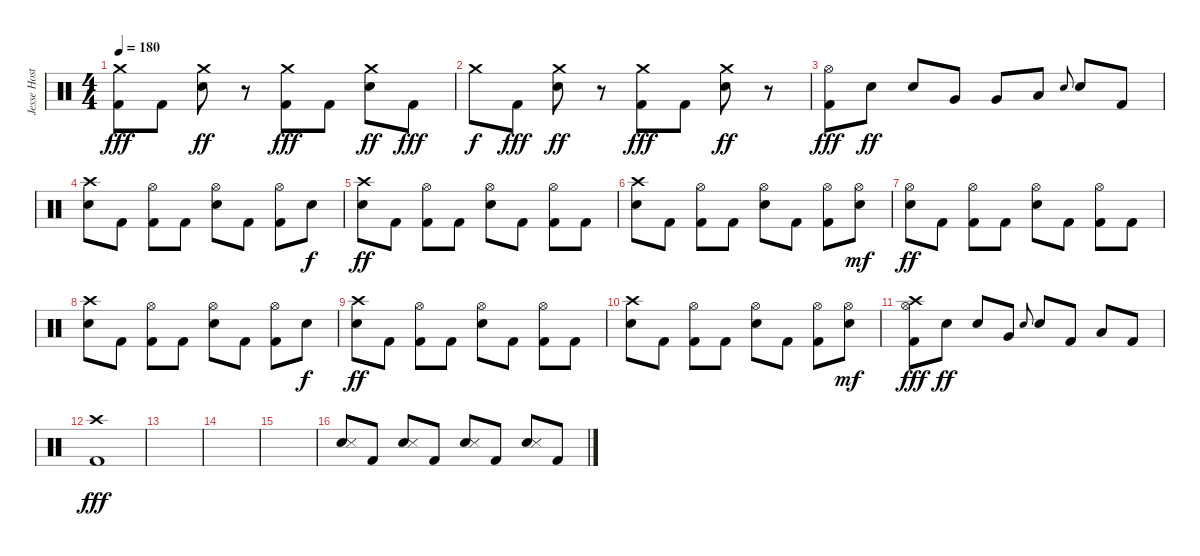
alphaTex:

\track ("Jesse Hostetler" "Jesse Host") {instrument percussion}
\staff {score}
\articulation defaults
\ts (4 4)
\tempo 180
\clef neutral
\ks c
("Crash medium (hit)" "Kick (hit) 2").8{dy fff} "Kick (hit) 2".8 ("Crash medium (hit)" "Electric Snare (hit)").8{dy ff} r.8 ("Crash medium (hit)" "Kick (hit) 2").8{dy fff} "Kick (hit) 2".8 ("Crash medium (hit)" "Electric Snare (hit)").8{dy ff} "Kick (hit) 2".8{dy fff} |
"Crash medium (hit)".8{dy f} "Kick (hit) 2".8{dy fff} ("Crash medium (hit)" "Electric Snare (hit)").8{dy ff} r.8 ("Crash medium (hit)" "Kick (hit) 2").8{dy fff} "Kick (hit) 2".8 ("Crash medium (hit)" "Electric Snare (hit)").8{dy ff} r.8 |
("Hi-Hat (open)" "Kick (hit) 2").8{dy fff} "Electric Snare (hit)".8{dy ff} "Electric Snare (hit)".8 "Very Low Tom (hit)".8 "Very Low Tom (hit)".8 "Low Floor Tom (hit)".8 "Electric Snare (hit)".8{gr onbeat} "Electric Snare (hit)".8 "Kick (hit) 2".8 |
("Crash high (hit)" "Electric Snare (hit)").8 "Kick (hit) 2".8 ("Hi-Hat (open)" "Kick (hit) 2").8 "Kick (hit) 2".8 ("Hi-Hat (open)" "Electric Snare (hit)").8 "Kick (hit) 2".8 ("Hi-Hat (open)" "Kick (hit) 2").8 "Electric Snare (hit)".8{dy f} |
("Crash high (hit)" "Electric Snare (hit)").8{dy ff} "Kick (hit) 2".8 ("Hi-Hat (open)" "Kick (hit) 2").8 "Kick (hit) 2".8 ("Hi-Hat (open)" "Electric Snare (hit)").8 "Kick (hit) 2".8 ("Hi-Hat (open)" "Kick (hit) 2").8 "Kick (hit) 2".8 |
("Crash high (hit)" "Electric Snare (hit)").8 "Kick (hit) 2".8 ("Hi-Hat (open)" "Kick (hit) 2").8 "Kick (hit) 2".8 ("Hi-Hat (open)" "Electric Snare (hit)").8 "Kick (hit) 2".8 ("Hi-Hat (open)" "Kick (hit) 2").8 ("Hi-Hat (open)" "Electric Snare (hit)").8{dy mf} |
("Hi-Hat (open)" "Electric Snare (hit)").8{dy ff} "Kick (hit) 2".8 ("Hi-Hat (open)" "Kick (hit) 2").8 "Kick (hit) 2".8 ("Hi-Hat (open)" "Electric Snare (hit)").8 "Kick (hit) 2".8 ("Hi-Hat (open)" "Kick (hit) 2").8 "Kick (hit) 2".8 |
("Crash high (hit)" "Electric Snare (hit)").8 "Kick (hit) 2".8 ("Hi-Hat (open)" "Kick (hit) 2").8 "Kick (hit) 2".8 ("Hi-Hat (open)" "Electric Snare (hit)").8 "Kick (hit) 2".8 ("Hi-Hat (open)" "Kick (hit) 2").8 "Electric Snare (hit)".8{dy f} |
("Crash high (hit)" "Electric Snare (hit)").8{dy ff} "Kick (hit) 2".8 ("Hi-Hat (open)" "Kick (hit) 2").8 "Kick (hit) 2".8 ("Hi-Hat (open)" "Electric Snare (hit)").8 "Kick (hit) 2".8 ("Hi-Hat (open)" "Kick (hit) 2").8 "Kick (hit) 2".8 |
("Crash high (hit)" "Electric Snare (hit)").8 "Kick (hit) 2".8 ("Hi-Hat (open)" "Kick (hit) 2").8 "Kick (hit) 2".8 ("Hi-Hat (open)" "Electric Snare (hit)").8 "Kick (hit) 2".8 ("Hi-Hat (open)" "Kick (hit) 2").8 ("Hi-Hat (open)" "Electric Snare (hit)").8{dy mf} |
("Crash high (hit)" "Hi-Hat (open)" "Kick (hit) 2").8{dy fff} "Electric Snare (hit)".8{dy ff} "Electric Snare (hit)".8 "Very Low Tom (hit)".8 "Electric Snare (hit)".8{gr onbeat} "Electric Snare (hit)".8 "Kick (hit) 2".8 "Low Floor Tom (hit)".8 "Kick (hit) 2".8 |
("Crash high (hit)" "Kick (hit) 2").1{dy fff} |
|
|
|
("Electric Snare (hit)" "Snare (side stick) 3").8{volume 13} "Kick (hit) 2".8 ("Electric Snare (hit)" "Snare (side stick) 3").8 "Kick (hit) 2".8 ("Electric Snare (hit)" "Snare (side stick) 3").8 "Kick (hit) 2".8 ("Electric Snare (hit)" "Snare (side stick) 3").8 "Kick (hit) 2".8
